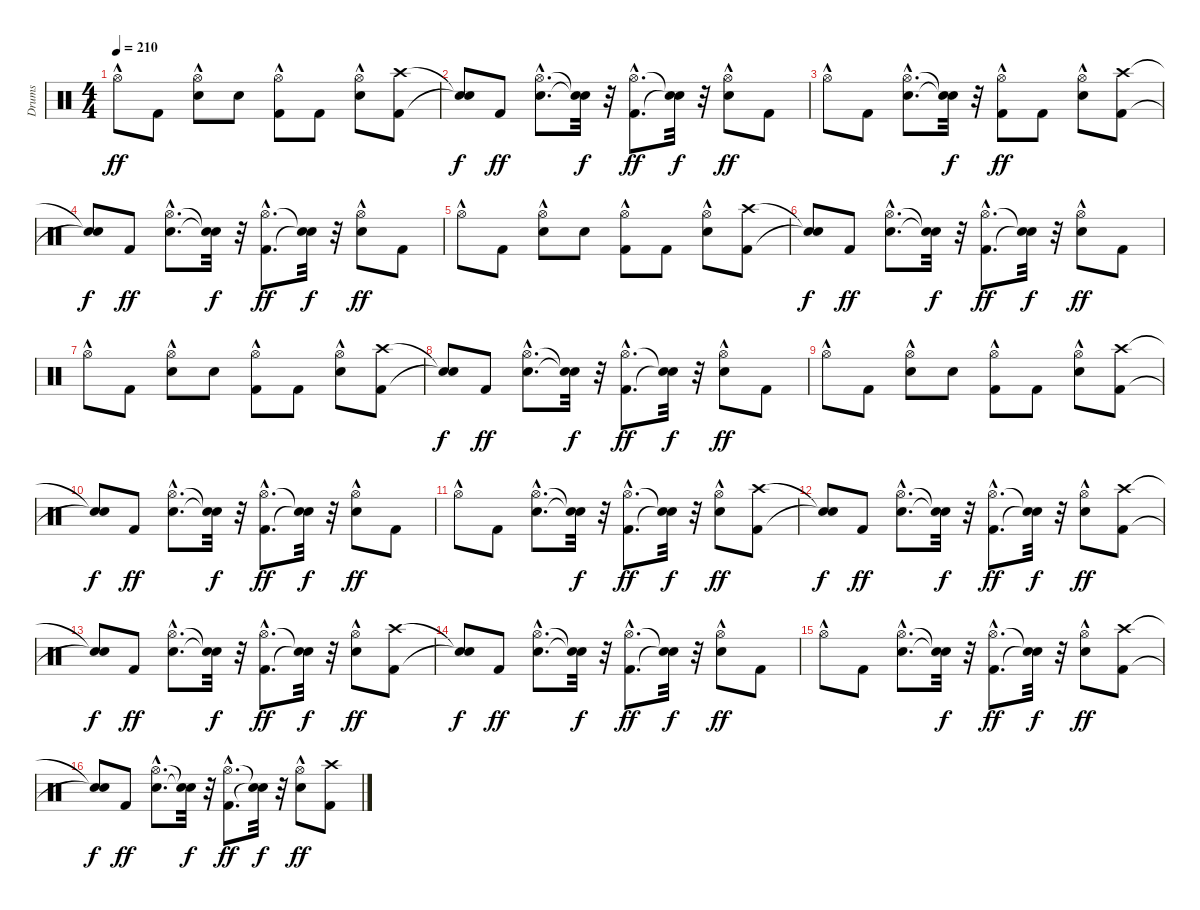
\track ("Drums" "Drums") {instrument percussion}
\staff {score}
\articulation defaults
\ts (4 4)
\tempo 210
\clef neutral
\ks c "Hi-Hat (open)"{hac}.8{dy ff} "Kick (hit) 2".8
("Snare (hit) 2" "Hi-Hat (open)"{hac}).8 "Snare (hit) 2".8 ("Kick (hit) 2" "Hi-Hat (open)"{hac}).8 "Kick (hit) 2".8 ("Snare (hit) 2" "Hi-Hat (open)"{hac}).8 ("Kick (hit) 2" "Crash high (hit)").8 |
("Snare (hit)"{t} "Snare (hit)"{t}).8{dy f} "Kick (hit) 2".8{dy ff} ("Snare (hit) 2"{hac} "Hi-Hat (open)"{hac}).8{d} ("Snare (hit)"{t} "Snare (hit)"{t}).32{dy f} r.32 ("Kick (hit) 2"{hac} "Hi-Hat (open)"{hac}).8{d dy ff} ("Snare (hit)"{t} "Snare (hit)"{t}).32{dy f} r.32 ("Snare (hit) 2" "Hi-Hat (open)"{hac}).8{dy ff} "Kick (hit) 2".8 |
"Hi-Hat (open)"{hac}.8 "Kick (hit) 2".8 ("Snare (hit) 2"{hac} "Hi-Hat (open)"{hac}).8{d} ("Snare (hit)"{t} "Snare (hit)"{t}).32{dy f} r.32 ("Kick (hit) 2" "Hi-Hat (open)"{hac}).8{dy ff} "Kick (hit) 2".8 ("Snare (hit) 2" "Hi-Hat (open)"{hac}).8 ("Kick (hit) 2" "Crash high (hit)").8 |
("Snare (hit)"{t} "Snare (hit)"{t}).8{dy f} "Kick (hit) 2".8{dy ff} ("Snare (hit) 2"{hac} "Hi-Hat (open)"{hac}).8{d} ("Snare (hit)"{t} "Snare (hit)"{t}).32{dy f} r.32 ("Kick (hit) 2"{hac} "Hi-Hat (open)"{hac}).8{d dy ff} ("Snare (hit)"{t} "Snare (hit)"{t}).32{dy f} r.32 ("Snare (hit) 2" "Hi-Hat (open)"{hac}).8{dy ff} "Kick (hit) 2".8 |
"Hi-Hat (open)"{hac}.8 "Kick (hit) 2".8 ("Snare (hit) 2" "Hi-Hat (open)"{hac}).8 "Snare (hit) 2".8 ("Kick (hit) 2" "Hi-Hat (open)"{hac}).8 "Kick (hit) 2".8 ("Snare (hit) 2" "Hi-Hat (open)"{hac}).8 ("Kick (hit) 2" "Crash high (hit)").8 |
("Snare (hit)"{t} "Snare (hit)"{t}).8{dy f} "Kick (hit) 2".8{dy ff} ("Snare (hit) 2"{hac} "Hi-Hat (open)"{hac}).8{d} ("Snare (hit)"{t} "Snare (hit)"{t}).32{dy f} r.32 ("Kick (hit) 2"{hac} "Hi-Hat (open)"{hac}).8{d dy ff} ("Snare (hit)"{t} "Snare (hit)"{t}).32{dy f} r.32 ("Snare (hit) 2" "Hi-Hat (open)"{hac}).8{dy ff} "Kick (hit) 2".8 |
"Hi-Hat (open)"{hac}.8 "Kick (hit) 2".8 ("Snare (hit) 2" "Hi-Hat (open)"{hac}).8 "Snare (hit) 2".8 ("Kick (hit) 2" "Hi-Hat (open)"{hac}).8 "Kick (hit) 2".8 ("Snare (hit) 2" "Hi-Hat (open)"{hac}).8 ("Kick (hit) 2" "Crash high (hit)").8 |
("Snare (hit)"{t} "Snare (hit)"{t}).8{dy f} "Kick (hit) 2".8{dy ff} ("Snare (hit) 2"{hac} "Hi-Hat (open)"{hac}).8{d} ("Snare (hit)"{t} "Snare (hit)"{t}).32{dy f} r.32 ("Kick (hit) 2"{hac} "Hi-Hat (open)"{hac}).8{d dy ff} ("Snare (hit)"{t} "Snare (hit)"{t}).32{dy f} r.32 ("Snare (hit) 2" "Hi-Hat (open)"{hac}).8{dy ff} "Kick (hit) 2".8 |
"Hi-Hat (open)"{hac}.8 "Kick (hit) 2".8 ("Snare (hit) 2" "Hi-Hat (open)"{hac}).8 "Snare (hit) 2".8 ("Kick (hit) 2" "Hi-Hat (open)"{hac}).8 "Kick (hit) 2".8 ("Snare (hit) 2" "Hi-Hat (open)"{hac}).8 ("Kick (hit) 2" "Crash high (hit)").8 |
("Snare (hit)"{t} "Snare (hit)"{t}).8{dy f} "Kick (hit) 2".8{dy ff} ("Snare (hit) 2"{hac} "Hi-Hat (open)"{hac}).8{d} ("Snare (hit)"{t} "Snare (hit)"{t}).32{dy f} r.32 ("Kick (hit) 2"{hac} "Hi-Hat (open)"{hac}).8{d dy ff} ("Snare (hit)"{t} "Snare (hit)"{t}).32{dy f} r.32 ("Snare (hit) 2" "Hi-Hat (open)"{hac}).8{dy ff} "Kick (hit) 2".8 |
"Hi-Hat (open)"{hac}.8 "Kick (hit) 2".8 ("Snare (hit) 2"{hac} "Hi-Hat (open)"{hac}).8{d} ("Snare (hit)"{t} "Snare (hit)"{t}).32{dy f} r.32 ("Kick (hit) 2"{hac} "Hi-Hat (open)"{hac}).8{d dy ff} ("Snare (hit)"{t} "Snare (hit)"{t}).32{dy f} r.32 ("Snare (hit) 2" "Hi-Hat (open)"{hac}).8{dy ff} ("Kick (hit) 2" "Crash high (hit)").8 |
("Snare (hit)"{t} "Snare (hit)"{t}).8{dy f} "Kick (hit) 2".8{dy ff} ("Snare (hit) 2"{hac} "Hi-Hat (open)"{hac}).8{d} ("Snare (hit)"{t} "Snare (hit)"{t}).32{dy f} r.32 ("Kick (hit) 2"{hac} "Hi-Hat (open)"{hac}).8{d dy ff} ("Snare (hit)"{t} "Snare (hit)"{t}).32{dy f} r.32 ("Snare (hit) 2" "Hi-Hat (open)"{hac}).8{dy ff} ("Kick (hit) 2" "Crash high (hit)").8 |
("Snare (hit)"{t} "Snare (hit)"{t}).8{dy f} "Kick (hit) 2".8{dy ff} ("Snare (hit) 2"{hac} "Hi-Hat (open)"{hac}).8{d} ("Snare (hit)"{t} "Snare (hit)"{t}).32{dy f} r.32 ("Kick (hit) 2"{hac} "Hi-Hat (open)"{hac}).8{d dy ff} ("Snare (hit)"{t} "Snare (hit)"{t}).32{dy f} r.32 ("Snare (hit) 2" "Hi-Hat (open)"{hac}).8{dy ff} ("Kick (hit) 2" "Crash high (hit)").8 |
("Snare (hit)"{t} "Snare (hit)"{t}).8{dy f} "Kick (hit) 2".8{dy ff} ("Snare (hit) 2"{hac} "Hi-Hat (open)"{hac}).8{d} ("Snare (hit)"{t} "Snare (hit)"{t}).32{dy f} r.32 ("Kick (hit) 2"{hac} "Hi-Hat (open)"{hac}).8{d dy ff} ("Snare (hit)"{t} "Snare (hit)"{t}).32{dy f} r.32 ("Snare (hit) 2" "Hi-Hat (open)"{hac}).8{dy ff} "Kick (hit) 2".8 |
"Hi-Hat (open)"{hac}.8 "Kick (hit) 2".8 ("Snare (hit) 2"{hac} "Hi-Hat (open)"{hac}).8{d} ("Snare (hit)"{t} "Snare (hit)"{t}).32{dy f} r.32 ("Kick (hit) 2"{hac} "Hi-Hat (open)"{hac}).8{d dy ff} ("Snare (hit)"{t} "Snare (hit)"{t}).32{dy f} r.32 ("Snare (hit) 2" "Hi-Hat (open)"{hac}).8{dy ff} ("Kick (hit) 2" "Crash high (hit)").8 |
("Snare (hit)"{t} "Snare (hit)"{t}).8{dy f} "Kick (hit) 2".8{dy ff} ("Snare (hit) 2"{hac} "Hi-Hat (open)"{hac}).8{d} ("Snare (hit)"{t} "Snare (hit)"{t}).32{dy f} r.32 ("Kick (hit) 2"{hac} "Hi-Hat (open)"{hac}).8{d dy ff} ("Snare (hit)"{t} "Snare (hit)"{t}).32{dy f} r.32 ("Snare (hit) 2" "Hi-Hat (open)"{hac}).8{dy ff} ("Kick (hit) 2" "Crash high (hit)").8
